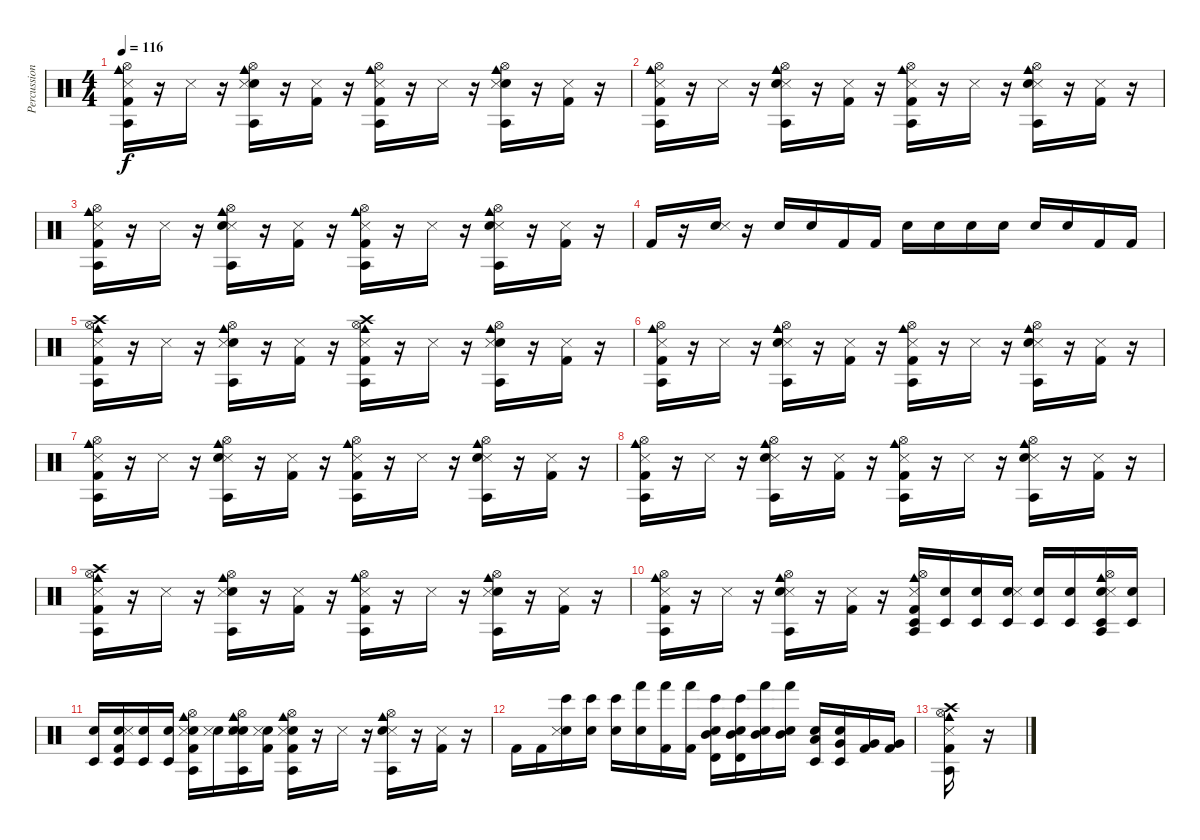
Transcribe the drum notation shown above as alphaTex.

\track ("Percussion" "Percussion") {instrument percussion}
\staff {score}
\articulation defaults
\ts (4 4)
\tempo 116
\clef neutral
\ks c
("Hi-Hat (open)" "Kick (hit) 2" "Agogo tow (hit)" "Cowbell medium (hit)" "Snare (side stick) 3").16{dy f} r.16 "Snare (side stick) 3".16 r.16 ("Hi-Hat (open)" "Snare (hit) 2" "Agogo tow (hit)" "Cowbell medium (hit)" "Snare (side stick) 3").16 r.16 ("Kick (hit) 2" "Snare (side stick) 3").16 r.16 ("Hi-Hat (open)" "Kick (hit) 2" "Agogo tow (hit)" "Cowbell medium (hit)" "Snare (side stick) 3").16 r.16 "Snare (side stick) 3".16 r.16 ("Hi-Hat (open)" "Snare (hit) 2" "Agogo tow (hit)" "Cowbell medium (hit)" "Snare (side stick) 3").16 r.16 ("Kick (hit) 2" "Snare (side stick) 3").16 r.16 |
("Hi-Hat (open)" "Cowbell medium (hit)" "Snare (side stick) 3" "Agogo tow (hit)" "Kick (hit) 2").16 r.16 "Snare (side stick) 3".16 r.16 ("Hi-Hat (open)" "Cowbell medium (hit)" "Snare (side stick) 3" "Agogo tow (hit)" "Snare (hit) 2").16 r.16 ("Snare (side stick) 3" "Kick (hit) 2").16 r.16 ("Hi-Hat (open)" "Cowbell medium (hit)" "Snare (side stick) 3" "Agogo tow (hit)" "Kick (hit) 2").16 r.16 "Snare (side stick) 3".16 r.16 ("Hi-Hat (open)" "Cowbell medium (hit)" "Snare (side stick) 3" "Agogo tow (hit)" "Snare (hit) 2").16 r.16 ("Snare (side stick) 3" "Kick (hit) 2").16 r.16 |
("Hi-Hat (open)" "Snare (side stick) 3" "Agogo tow (hit)" "Kick (hit) 2" "Cowbell medium (hit)").16 r.16 "Snare (side stick) 3".16 r.16 ("Hi-Hat (open)" "Snare (side stick) 3" "Agogo tow (hit)" "Snare (hit) 2" "Cowbell medium (hit)").16 r.16 ("Snare (side stick) 3" "Kick (hit) 2").16 r.16 ("Hi-Hat (open)" "Snare (side stick) 3" "Agogo tow (hit)" "Kick (hit) 2" "Cowbell medium (hit)").16 r.16 "Snare (side stick) 3".16 r.16 ("Hi-Hat (open)" "Snare (side stick) 3" "Agogo tow (hit)" "Snare (hit) 2" "Cowbell medium (hit)").16 r.16 ("Snare (side stick) 3" "Kick (hit) 2").16 r.16 |
"Kick (hit) 2".16 r.16 ("Snare (hit) 2" "Snare (side stick) 3").16 r.16 "Snare (hit) 2".16 "Snare (hit) 2".16 "Kick (hit) 2".16 "Kick (hit) 2".16 "Snare (hit) 2".16 "Snare (hit) 2".16 "Electric Snare (hit)".16 "Electric Snare (hit)".16 "Snare (hit) 2".16 "Snare (hit) 2".16 "Kick (hit) 2".16 "Kick (hit) 2".16 |
("Hi-Hat (open)" "Kick (hit) 2" "Agogo tow (hit)" "Crash high (hit)" "Cowbell medium (hit)" "Snare (side stick) 3").16 r.16 "Snare (side stick) 3".16 r.16 ("Hi-Hat (open)" "Snare (hit) 2" "Agogo tow (hit)" "Cowbell medium (hit)" "Snare (side stick) 3").16 r.16 ("Kick (hit) 2" "Snare (side stick) 3").16 r.16 ("Crash high (hit)" "Hi-Hat (open)" "Kick (hit) 2" "Agogo tow (hit)" "Cowbell medium (hit)" "Snare (side stick) 3").16 r.16 "Snare (side stick) 3".16 r.16 ("Hi-Hat (open)" "Snare (hit) 2" "Agogo tow (hit)" "Cowbell medium (hit)" "Snare (side stick) 3").16 r.16 ("Kick (hit) 2" "Snare (side stick) 3").16 r.16 |
("Hi-Hat (open)" "Cowbell medium (hit)" "Snare (side stick) 3" "Agogo tow (hit)" "Kick (hit) 2").16 r.16 "Snare (side stick) 3".16 r.16 ("Hi-Hat (open)" "Cowbell medium (hit)" "Snare (side stick) 3" "Agogo tow (hit)" "Snare (hit) 2").16 r.16 ("Snare (side stick) 3" "Kick (hit) 2").16 r.16 ("Hi-Hat (open)" "Cowbell medium (hit)" "Snare (side stick) 3" "Agogo tow (hit)" "Kick (hit) 2").16 r.16 "Snare (side stick) 3".16 r.16 ("Hi-Hat (open)" "Cowbell medium (hit)" "Snare (side stick) 3" "Agogo tow (hit)" "Snare (hit) 2").16 r.16 ("Snare (side stick) 3" "Kick (hit) 2").16 r.16 |
("Hi-Hat (open)" "Snare (side stick) 3" "Agogo tow (hit)" "Kick (hit) 2" "Cowbell medium (hit)").16 r.16 "Snare (side stick) 3".16 r.16 ("Hi-Hat (open)" "Snare (side stick) 3" "Agogo tow (hit)" "Snare (hit) 2" "Cowbell medium (hit)").16 r.16 ("Snare (side stick) 3" "Kick (hit) 2").16 r.16 ("Hi-Hat (open)" "Snare (side stick) 3" "Agogo tow (hit)" "Kick (hit) 2" "Cowbell medium (hit)").16 r.16 "Snare (side stick) 3".16 r.16 ("Hi-Hat (open)" "Snare (side stick) 3" "Agogo tow (hit)" "Snare (hit) 2" "Cowbell medium (hit)").16 r.16 ("Snare (side stick) 3" "Kick (hit) 2").16 r.16 |
("Hi-Hat (open)" "Snare (side stick) 3" "Agogo tow (hit)" "Kick (hit) 2" "Cowbell medium (hit)").16 r.16 "Snare (side stick) 3".16 r.16 ("Hi-Hat (open)" "Snare (side stick) 3" "Agogo tow (hit)" "Snare (hit) 2" "Cowbell medium (hit)").16 r.16 ("Snare (side stick) 3" "Kick (hit) 2").16 r.16 ("Hi-Hat (open)" "Snare (side stick) 3" "Agogo tow (hit)" "Kick (hit) 2" "Cowbell medium (hit)").16 r.16 "Snare (side stick) 3".16 r.16 ("Hi-Hat (open)" "Snare (side stick) 3" "Agogo tow (hit)" "Snare (hit) 2" "Cowbell medium (hit)").16 r.16 ("Snare (side stick) 3" "Kick (hit) 2").16 r.16 |
("Hi-Hat (open)" "Kick (hit) 2" "Agogo tow (hit)" "Crash high (hit)" "Cowbell medium (hit)" "Snare (side stick) 3").16 r.16 "Snare (side stick) 3".16 r.16 ("Hi-Hat (open)" "Snare (hit) 2" "Agogo tow (hit)" "Cowbell medium (hit)" "Snare (side stick) 3").16 r.16 ("Kick (hit) 2" "Snare (side stick) 3").16 r.16 ("Hi-Hat (open)" "Kick (hit) 2" "Agogo tow (hit)" "Cowbell medium (hit)" "Snare (side stick) 3").16 r.16 "Snare (side stick) 3".16 r.16 ("Hi-Hat (open)" "Snare (hit) 2" "Agogo tow (hit)" "Cowbell medium (hit)" "Snare (side stick) 3").16 r.16 ("Kick (hit) 2" "Snare (side stick) 3").16 r.16 |
("Hi-Hat (open)" "Cowbell medium (hit)" "Snare (side stick) 3" "Agogo tow (hit)" "Kick (hit) 2").16 r.16 "Snare (side stick) 3".16 r.16 ("Hi-Hat (open)" "Cowbell medium (hit)" "Snare (side stick) 3" "Agogo tow (hit)" "Snare (hit) 2").16 r.16 ("Snare (side stick) 3" "Kick (hit) 2").16 r.16 ("Timbale low (hit)" "Hi-Hat (open)" "Cowbell medium (hit)" "Snare (side stick) 3" "Agogo tow (hit)" "Kick (hit) 2").16 ("Snare (hit)" "Timbale low (hit)").16 ("Snare (hit)" "Timbale low (hit)").16 ("Snare (hit)" "Timbale low (hit)" "Snare (side stick) 3").16 ("Snare (hit)" "Timbale low (hit)").16 ("Snare (hit)" "Timbale low (hit)").16 ("Snare (hit)" "Hi-Hat (open)" "Cowbell medium (hit)" "Snare (side stick) 3" "Agogo tow (hit)" "Timbale low (hit)").16 ("Snare (hit)" "Timbale low (hit)").16 |
("Snare (hit)" "Timbale low (hit)").16 ("Snare (hit)" "Timbale low (hit)" "Snare (side stick) 3" "Kick (hit) 2").16 ("Snare (hit)" "Timbale low (hit)").16 ("Snare (hit)" "Timbale low (hit)").16 ("Snare (hit)" "Hi-Hat (open)" "Snare (side stick) 3" "Agogo tow (hit)" "Kick (hit) 2" "Cowbell medium (hit)").16 ("Snare (hit)" "Snare (side stick) 3").16 ("Snare (hit)" "Hi-Hat (open)" "Snare (side stick) 3" "Agogo tow (hit)" "Snare (hit) 2" "Cowbell medium (hit)").16 ("Snare (hit)" "Snare (side stick) 3" "Kick (hit) 2").16 ("Snare (hit)" "Hi-Hat (open)" "Snare (side stick) 3" "Agogo tow (hit)" "Kick (hit) 2" "Cowbell medium (hit)").16 r.16 "Snare (side stick) 3".16 r.16 ("Hi-Hat (open)" "Snare (side stick) 3" "Agogo tow (hit)" "Snare (hit) 2" "Cowbell medium (hit)").16 r.16 ("Snare (side stick) 3" "Kick (hit) 2").16 r.16 |
"Kick (hit) 2".16 "Kick (hit) 2".16 ("Snare (hit) 2" "Snare (side stick) 3" "Bongo High (hit)").16 ("Bongo High (hit)" "Snare (hit) 2").16 ("Bongo High (hit)" "Snare (hit) 2").16 ("Hand (hit)" "Snare (hit) 2").16 ("Hand (hit)" "Kick (hit) 2").16 ("Hand (hit)" "Kick (hit) 2").16 ("Timbale high (hit)" "Mid Tom (hit)" "Snare (hit) 2" "Bongo High (hit)").16 ("Mid Tom (hit)" "Snare (hit) 2" "Timbale high (hit)" "Bongo High (hit)").16 ("Mid Tom (hit)" "Electric Snare (hit)" "Hand (hit)").16 ("Electric Snare (hit)" "Mid Tom (hit)" "Hand (hit)").16 ("Timbale low (hit)" "Snare (hit) 2" "Low Tom (hit)").16 ("Timbale low (hit)" "Snare (hit) 2" "Very Low Tom (hit)").16 ("Kick (hit) 2" "Very Low Tom (hit)").16 ("Kick (hit) 2" "Very Low Tom (hit)").16 |
("Hi-Hat (open)" "Kick (hit) 2" "Agogo tow (hit)" "Crash high (hit)" "Cowbell medium (hit)" "Snare (side stick) 3").16 r.16
